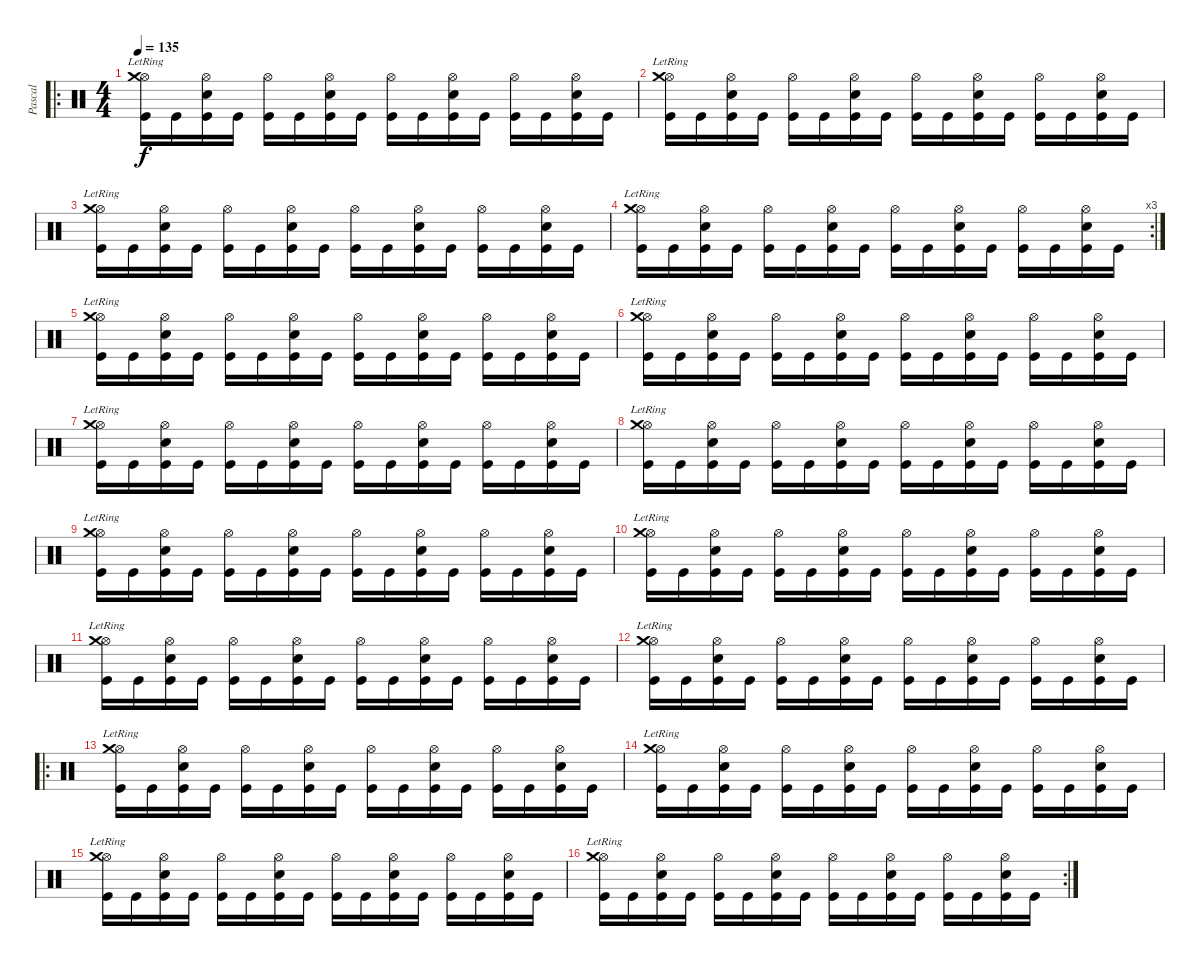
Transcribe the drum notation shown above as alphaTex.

\track ("Pascal" "Pascal") {instrument percussion}
\staff {score}
\articulation defaults
\ro
\ts (4 4)
\tempo 135
\clef neutral
\ks c
("Hi-Hat (open)" "Crash medium (hit)"{lr} "Kick (hit)").16{dy f} "Kick (hit)".16 ("Hi-Hat (open)" "Snare (hit) 2" "Kick (hit)").16 "Kick (hit)".16 ("Hi-Hat (open)" "Kick (hit)").16 "Kick (hit)".16 ("Hi-Hat (open)" "Snare (hit) 2" "Kick (hit)").16 "Kick (hit)".16 ("Hi-Hat (open)" "Kick (hit)").16 "Kick (hit)".16 ("Hi-Hat (open)" "Snare (hit) 2" "Kick (hit)").16 "Kick (hit)".16 ("Hi-Hat (open)" "Kick (hit)").16 "Kick (hit)".16 ("Hi-Hat (open)" "Snare (hit) 2" "Kick (hit)").16 "Kick (hit)".16 |
("Hi-Hat (open)" "Crash medium (hit)"{lr} "Kick (hit)").16 "Kick (hit)".16 ("Hi-Hat (open)" "Snare (hit) 2" "Kick (hit)").16 "Kick (hit)".16 ("Hi-Hat (open)" "Kick (hit)").16 "Kick (hit)".16 ("Hi-Hat (open)" "Snare (hit) 2" "Kick (hit)").16 "Kick (hit)".16 ("Hi-Hat (open)" "Kick (hit)").16 "Kick (hit)".16 ("Hi-Hat (open)" "Snare (hit) 2" "Kick (hit)").16 "Kick (hit)".16 ("Hi-Hat (open)" "Kick (hit)").16 "Kick (hit)".16 ("Hi-Hat (open)" "Snare (hit) 2" "Kick (hit)").16 "Kick (hit)".16 |
("Hi-Hat (open)" "Crash medium (hit)"{lr} "Kick (hit)").16 "Kick (hit)".16 ("Hi-Hat (open)" "Snare (hit) 2" "Kick (hit)").16 "Kick (hit)".16 ("Hi-Hat (open)" "Kick (hit)").16 "Kick (hit)".16 ("Hi-Hat (open)" "Snare (hit) 2" "Kick (hit)").16 "Kick (hit)".16 ("Hi-Hat (open)" "Kick (hit)").16 "Kick (hit)".16 ("Hi-Hat (open)" "Snare (hit) 2" "Kick (hit)").16 "Kick (hit)".16 ("Hi-Hat (open)" "Kick (hit)").16 "Kick (hit)".16 ("Hi-Hat (open)" "Snare (hit) 2" "Kick (hit)").16 "Kick (hit)".16 |
\rc 3
("Hi-Hat (open)" "Crash medium (hit)"{lr} "Kick (hit)").16 "Kick (hit)".16 ("Hi-Hat (open)" "Snare (hit) 2" "Kick (hit)").16 "Kick (hit)".16 ("Hi-Hat (open)" "Kick (hit)").16 "Kick (hit)".16 ("Hi-Hat (open)" "Snare (hit) 2" "Kick (hit)").16 "Kick (hit)".16 ("Hi-Hat (open)" "Kick (hit)").16 "Kick (hit)".16 ("Hi-Hat (open)" "Snare (hit) 2" "Kick (hit)").16 "Kick (hit)".16 ("Hi-Hat (open)" "Kick (hit)").16 "Kick (hit)".16 ("Hi-Hat (open)" "Snare (hit) 2" "Kick (hit)").16 "Kick (hit)".16 |
("Hi-Hat (open)" "Crash medium (hit)"{lr} "Kick (hit)").16 "Kick (hit)".16 ("Hi-Hat (open)" "Snare (hit) 2" "Kick (hit)").16 "Kick (hit)".16 ("Hi-Hat (open)" "Kick (hit)").16 "Kick (hit)".16 ("Hi-Hat (open)" "Snare (hit) 2" "Kick (hit)").16 "Kick (hit)".16 ("Hi-Hat (open)" "Kick (hit)").16 "Kick (hit)".16 ("Hi-Hat (open)" "Snare (hit) 2" "Kick (hit)").16 "Kick (hit)".16 ("Hi-Hat (open)" "Kick (hit)").16 "Kick (hit)".16 ("Hi-Hat (open)" "Snare (hit) 2" "Kick (hit)").16 "Kick (hit)".16 |
("Hi-Hat (open)" "Crash medium (hit)"{lr} "Kick (hit)").16 "Kick (hit)".16 ("Hi-Hat (open)" "Snare (hit) 2" "Kick (hit)").16 "Kick (hit)".16 ("Hi-Hat (open)" "Kick (hit)").16 "Kick (hit)".16 ("Hi-Hat (open)" "Snare (hit) 2" "Kick (hit)").16 "Kick (hit)".16 ("Hi-Hat (open)" "Kick (hit)").16 "Kick (hit)".16 ("Hi-Hat (open)" "Snare (hit) 2" "Kick (hit)").16 "Kick (hit)".16 ("Hi-Hat (open)" "Kick (hit)").16 "Kick (hit)".16 ("Hi-Hat (open)" "Snare (hit) 2" "Kick (hit)").16 "Kick (hit)".16 |
("Hi-Hat (open)" "Crash medium (hit)"{lr} "Kick (hit)").16 "Kick (hit)".16 ("Hi-Hat (open)" "Snare (hit) 2" "Kick (hit)").16 "Kick (hit)".16 ("Hi-Hat (open)" "Kick (hit)").16 "Kick (hit)".16 ("Hi-Hat (open)" "Snare (hit) 2" "Kick (hit)").16 "Kick (hit)".16 ("Hi-Hat (open)" "Kick (hit)").16 "Kick (hit)".16 ("Hi-Hat (open)" "Snare (hit) 2" "Kick (hit)").16 "Kick (hit)".16 ("Hi-Hat (open)" "Kick (hit)").16 "Kick (hit)".16 ("Hi-Hat (open)" "Snare (hit) 2" "Kick (hit)").16 "Kick (hit)".16 |
("Hi-Hat (open)" "Crash medium (hit)"{lr} "Kick (hit)").16 "Kick (hit)".16 ("Hi-Hat (open)" "Snare (hit) 2" "Kick (hit)").16 "Kick (hit)".16 ("Hi-Hat (open)" "Kick (hit)").16 "Kick (hit)".16 ("Hi-Hat (open)" "Snare (hit) 2" "Kick (hit)").16 "Kick (hit)".16 ("Hi-Hat (open)" "Kick (hit)").16 "Kick (hit)".16 ("Hi-Hat (open)" "Snare (hit) 2" "Kick (hit)").16 "Kick (hit)".16 ("Hi-Hat (open)" "Kick (hit)").16 "Kick (hit)".16 ("Hi-Hat (open)" "Snare (hit) 2" "Kick (hit)").16 "Kick (hit)".16 |
("Hi-Hat (open)" "Crash medium (hit)"{lr} "Kick (hit)").16 "Kick (hit)".16 ("Hi-Hat (open)" "Snare (hit) 2" "Kick (hit)").16 "Kick (hit)".16 ("Hi-Hat (open)" "Kick (hit)").16 "Kick (hit)".16 ("Hi-Hat (open)" "Snare (hit) 2" "Kick (hit)").16 "Kick (hit)".16 ("Hi-Hat (open)" "Kick (hit)").16 "Kick (hit)".16 ("Hi-Hat (open)" "Snare (hit) 2" "Kick (hit)").16 "Kick (hit)".16 ("Hi-Hat (open)" "Kick (hit)").16 "Kick (hit)".16 ("Hi-Hat (open)" "Snare (hit) 2" "Kick (hit)").16 "Kick (hit)".16 |
("Hi-Hat (open)" "Crash medium (hit)"{lr} "Kick (hit)").16 "Kick (hit)".16 ("Hi-Hat (open)" "Snare (hit) 2" "Kick (hit)").16 "Kick (hit)".16 ("Hi-Hat (open)" "Kick (hit)").16 "Kick (hit)".16 ("Hi-Hat (open)" "Snare (hit) 2" "Kick (hit)").16 "Kick (hit)".16 ("Hi-Hat (open)" "Kick (hit)").16 "Kick (hit)".16 ("Hi-Hat (open)" "Snare (hit) 2" "Kick (hit)").16 "Kick (hit)".16 ("Hi-Hat (open)" "Kick (hit)").16 "Kick (hit)".16 ("Hi-Hat (open)" "Snare (hit) 2" "Kick (hit)").16 "Kick (hit)".16 |
("Hi-Hat (open)" "Crash medium (hit)"{lr} "Kick (hit)").16 "Kick (hit)".16 ("Hi-Hat (open)" "Snare (hit) 2" "Kick (hit)").16 "Kick (hit)".16 ("Hi-Hat (open)" "Kick (hit)").16 "Kick (hit)".16 ("Hi-Hat (open)" "Snare (hit) 2" "Kick (hit)").16 "Kick (hit)".16 ("Hi-Hat (open)" "Kick (hit)").16 "Kick (hit)".16 ("Hi-Hat (open)" "Snare (hit) 2" "Kick (hit)").16 "Kick (hit)".16 ("Hi-Hat (open)" "Kick (hit)").16 "Kick (hit)".16 ("Hi-Hat (open)" "Snare (hit) 2" "Kick (hit)").16 "Kick (hit)".16 |
("Hi-Hat (open)" "Crash medium (hit)"{lr} "Kick (hit)").16 "Kick (hit)".16 ("Hi-Hat (open)" "Snare (hit) 2" "Kick (hit)").16 "Kick (hit)".16 ("Hi-Hat (open)" "Kick (hit)").16 "Kick (hit)".16 ("Hi-Hat (open)" "Snare (hit) 2" "Kick (hit)").16 "Kick (hit)".16 ("Hi-Hat (open)" "Kick (hit)").16 "Kick (hit)".16 ("Hi-Hat (open)" "Snare (hit) 2" "Kick (hit)").16 "Kick (hit)".16 ("Hi-Hat (open)" "Kick (hit)").16 "Kick (hit)".16 ("Hi-Hat (open)" "Snare (hit) 2" "Kick (hit)").16 "Kick (hit)".16 |
\ro
("Hi-Hat (open)" "Crash medium (hit)"{lr} "Kick (hit)").16 "Kick (hit)".16 ("Hi-Hat (open)" "Snare (hit) 2" "Kick (hit)").16 "Kick (hit)".16 ("Hi-Hat (open)" "Kick (hit)").16 "Kick (hit)".16 ("Hi-Hat (open)" "Snare (hit) 2" "Kick (hit)").16 "Kick (hit)".16 ("Hi-Hat (open)" "Kick (hit)").16 "Kick (hit)".16 ("Hi-Hat (open)" "Snare (hit) 2" "Kick (hit)").16 "Kick (hit)".16 ("Hi-Hat (open)" "Kick (hit)").16 "Kick (hit)".16 ("Hi-Hat (open)" "Snare (hit) 2" "Kick (hit)").16 "Kick (hit)".16 |
("Hi-Hat (open)" "Crash medium (hit)"{lr} "Kick (hit)").16 "Kick (hit)".16 ("Hi-Hat (open)" "Snare (hit) 2" "Kick (hit)").16 "Kick (hit)".16 ("Hi-Hat (open)" "Kick (hit)").16 "Kick (hit)".16 ("Hi-Hat (open)" "Snare (hit) 2" "Kick (hit)").16 "Kick (hit)".16 ("Hi-Hat (open)" "Kick (hit)").16 "Kick (hit)".16 ("Hi-Hat (open)" "Snare (hit) 2" "Kick (hit)").16 "Kick (hit)".16 ("Hi-Hat (open)" "Kick (hit)").16 "Kick (hit)".16 ("Hi-Hat (open)" "Snare (hit) 2" "Kick (hit)").16 "Kick (hit)".16 |
("Hi-Hat (open)" "Crash medium (hit)"{lr} "Kick (hit)").16 "Kick (hit)".16 ("Hi-Hat (open)" "Snare (hit) 2" "Kick (hit)").16 "Kick (hit)".16 ("Hi-Hat (open)" "Kick (hit)").16 "Kick (hit)".16 ("Hi-Hat (open)" "Snare (hit) 2" "Kick (hit)").16 "Kick (hit)".16 ("Hi-Hat (open)" "Kick (hit)").16 "Kick (hit)".16 ("Hi-Hat (open)" "Snare (hit) 2" "Kick (hit)").16 "Kick (hit)".16 ("Hi-Hat (open)" "Kick (hit)").16 "Kick (hit)".16 ("Hi-Hat (open)" "Snare (hit) 2" "Kick (hit)").16 "Kick (hit)".16 |
\rc 2
("Hi-Hat (open)" "Crash medium (hit)"{lr} "Kick (hit)").16 "Kick (hit)".16 ("Hi-Hat (open)" "Snare (hit) 2" "Kick (hit)").16 "Kick (hit)".16 ("Hi-Hat (open)" "Kick (hit)").16 "Kick (hit)".16 ("Hi-Hat (open)" "Snare (hit) 2" "Kick (hit)").16 "Kick (hit)".16 ("Hi-Hat (open)" "Kick (hit)").16 "Kick (hit)".16 ("Hi-Hat (open)" "Snare (hit) 2" "Kick (hit)").16 "Kick (hit)".16 ("Hi-Hat (open)" "Kick (hit)").16 "Kick (hit)".16 ("Hi-Hat (open)" "Snare (hit) 2" "Kick (hit)").16 "Kick (hit)".16
